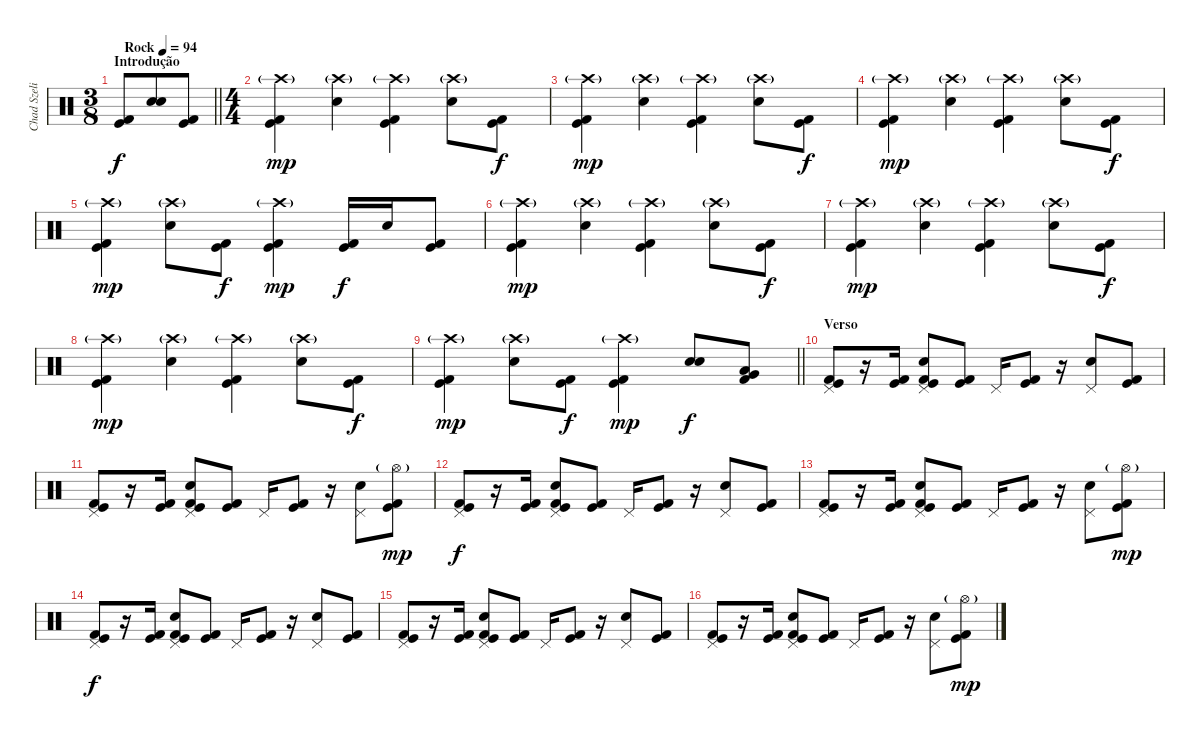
\track ("Chad Szeliga" "Chad Szeli") {instrument percussion}
\staff {score}
\articulation defaults
\ts (3 8)
\section ("" "Introdução")
\tempo (94 "Rock")
\clef neutral
\barLineRight lightlight
\ks c
("Kick (hit) 2" "Kick (hit)").8{dy f} ("Snare (hit) 2" "Snare (hit) 2").8 ("Kick (hit) 2" "Kick (hit)").8 |
\ts (4 4)
("Crash high (hit)"{g} "Kick (hit) 2" "Kick (hit)").4{dy mp} ("Crash high (hit)"{g} "Snare (hit) 2").4 ("Crash high (hit)"{g} "Kick (hit) 2" "Kick (hit)").4 ("Crash high (hit)"{g} "Snare (hit) 2").8 ("Kick (hit) 2" "Kick (hit)").8{dy f} |
("Crash high (hit)"{g} "Kick (hit) 2" "Kick (hit)").4{dy mp} ("Crash high (hit)"{g} "Snare (hit) 2").4 ("Crash high (hit)"{g} "Kick (hit) 2" "Kick (hit)").4 ("Crash high (hit)"{g} "Snare (hit) 2").8 ("Kick (hit) 2" "Kick (hit)").8{dy f} |
("Crash high (hit)"{g} "Kick (hit) 2" "Kick (hit)").4{dy mp} ("Crash high (hit)"{g} "Snare (hit) 2").4 ("Crash high (hit)"{g} "Kick (hit) 2" "Kick (hit)").4 ("Crash high (hit)"{g} "Snare (hit) 2").8 ("Kick (hit) 2" "Kick (hit)").8{dy f} |
("Crash high (hit)"{g} "Kick (hit) 2" "Kick (hit)").4{dy mp} ("Crash high (hit)"{g} "Snare (hit) 2").8 ("Kick (hit) 2" "Kick (hit)").8{dy f} ("Crash high (hit)"{g} "Kick (hit) 2" "Kick (hit)").4{dy mp} ("Kick (hit) 2" "Kick (hit)").16{dy f} "Snare (hit) 2".16 ("Kick (hit) 2" "Kick (hit)").8 |
("Crash high (hit)"{g} "Kick (hit) 2" "Kick (hit)").4{dy mp} ("Crash high (hit)"{g} "Snare (hit) 2").4 ("Crash high (hit)"{g} "Kick (hit) 2" "Kick (hit)").4 ("Crash high (hit)"{g} "Snare (hit) 2").8 ("Kick (hit) 2" "Kick (hit)").8{dy f} |
("Crash high (hit)"{g} "Kick (hit) 2" "Kick (hit)").4{dy mp} ("Crash high (hit)"{g} "Snare (hit) 2").4 ("Crash high (hit)"{g} "Kick (hit) 2" "Kick (hit)").4 ("Crash high (hit)"{g} "Snare (hit) 2").8 ("Kick (hit) 2" "Kick (hit)").8{dy f} |
("Crash high (hit)"{g} "Kick (hit) 2" "Kick (hit)").4{dy mp} ("Crash high (hit)"{g} "Snare (hit) 2").4 ("Crash high (hit)"{g} "Kick (hit) 2" "Kick (hit)").4 ("Crash high (hit)"{g} "Snare (hit) 2").8 ("Kick (hit) 2" "Kick (hit)").8{dy f} |
\barLineRight lightlight
("Crash high (hit)"{g} "Kick (hit) 2" "Kick (hit)").4{dy mp} ("Crash high (hit)"{g} "Snare (hit) 2").8 ("Kick (hit) 2" "Kick (hit)").8{dy f} ("Crash high (hit)"{g} "Kick (hit) 2" "Kick (hit)").4{dy mp} ("Snare (hit) 2" "Snare (hit) 2").8{dy f} ("Kick (hit) 2" "Low Tom (hit)" "Very Low Tom (hit)").8 |
\section ("" "Verso")
("Kick (hit) 2" "Kick (hit)" "Pedal Hi-Hat (hit)").8 r.16 ("Kick (hit) 2" "Kick (hit)").16 ("Kick (hit) 2" "Kick (hit)" "Snare (hit) 2" "Pedal Hi-Hat (hit)").8 ("Kick (hit) 2" "Kick (hit)").8 "Pedal Hi-Hat (hit)".16 ("Kick (hit) 2" "Kick (hit)").8 r.16 ("Snare (hit) 2" "Pedal Hi-Hat (hit)").8 ("Kick (hit) 2" "Kick (hit)").8 |
("Kick (hit) 2" "Kick (hit)" "Pedal Hi-Hat (hit)").8 r.16 ("Kick (hit) 2" "Kick (hit)").16 ("Kick (hit) 2" "Kick (hit)" "Snare (hit) 2" "Pedal Hi-Hat (hit)").8 ("Kick (hit) 2" "Kick (hit)").8 "Pedal Hi-Hat (hit)".16 ("Kick (hit) 2" "Kick (hit)").8 r.16 ("Snare (hit) 2" "Pedal Hi-Hat (hit)").8 ("Kick (hit) 2" "Kick (hit)" "Hi-Hat (open)"{g}).8{dy mp} |
("Kick (hit) 2" "Kick (hit)" "Pedal Hi-Hat (hit)").8{dy f} r.16 ("Kick (hit) 2" "Kick (hit)").16 ("Kick (hit) 2" "Kick (hit)" "Snare (hit) 2" "Pedal Hi-Hat (hit)").8 ("Kick (hit) 2" "Kick (hit)").8 "Pedal Hi-Hat (hit)".16 ("Kick (hit) 2" "Kick (hit)").8 r.16 ("Snare (hit) 2" "Pedal Hi-Hat (hit)").8 ("Kick (hit) 2" "Kick (hit)").8 |
("Kick (hit) 2" "Kick (hit)" "Pedal Hi-Hat (hit)").8 r.16 ("Kick (hit) 2" "Kick (hit)").16 ("Kick (hit) 2" "Kick (hit)" "Snare (hit) 2" "Pedal Hi-Hat (hit)").8 ("Kick (hit) 2" "Kick (hit)").8 "Pedal Hi-Hat (hit)".16 ("Kick (hit) 2" "Kick (hit)").8 r.16 ("Snare (hit) 2" "Pedal Hi-Hat (hit)").8 ("Kick (hit) 2" "Kick (hit)" "Hi-Hat (open)"{g}).8{dy mp} |
("Kick (hit) 2" "Kick (hit)" "Pedal Hi-Hat (hit)").8{dy f} r.16 ("Kick (hit) 2" "Kick (hit)").16 ("Kick (hit) 2" "Kick (hit)" "Snare (hit) 2" "Pedal Hi-Hat (hit)").8 ("Kick (hit) 2" "Kick (hit)").8 "Pedal Hi-Hat (hit)".16 ("Kick (hit) 2" "Kick (hit)").8 r.16 ("Snare (hit) 2" "Pedal Hi-Hat (hit)").8 ("Kick (hit) 2" "Kick (hit)").8 |
("Kick (hit) 2" "Kick (hit)" "Pedal Hi-Hat (hit)").8 r.16 ("Kick (hit) 2" "Kick (hit)").16 ("Kick (hit) 2" "Kick (hit)" "Snare (hit) 2" "Pedal Hi-Hat (hit)").8 ("Kick (hit) 2" "Kick (hit)").8 "Pedal Hi-Hat (hit)".16 ("Kick (hit) 2" "Kick (hit)").8 r.16 ("Snare (hit) 2" "Pedal Hi-Hat (hit)").8 ("Kick (hit) 2" "Kick (hit)").8 |
("Kick (hit) 2" "Kick (hit)" "Pedal Hi-Hat (hit)").8 r.16 ("Kick (hit) 2" "Kick (hit)").16 ("Kick (hit) 2" "Kick (hit)" "Snare (hit) 2" "Pedal Hi-Hat (hit)").8 ("Kick (hit) 2" "Kick (hit)").8 "Pedal Hi-Hat (hit)".16 ("Kick (hit) 2" "Kick (hit)").8 r.16 ("Snare (hit) 2" "Pedal Hi-Hat (hit)").8 ("Kick (hit) 2" "Kick (hit)" "Hi-Hat (open)"{g}).8{dy mp}
